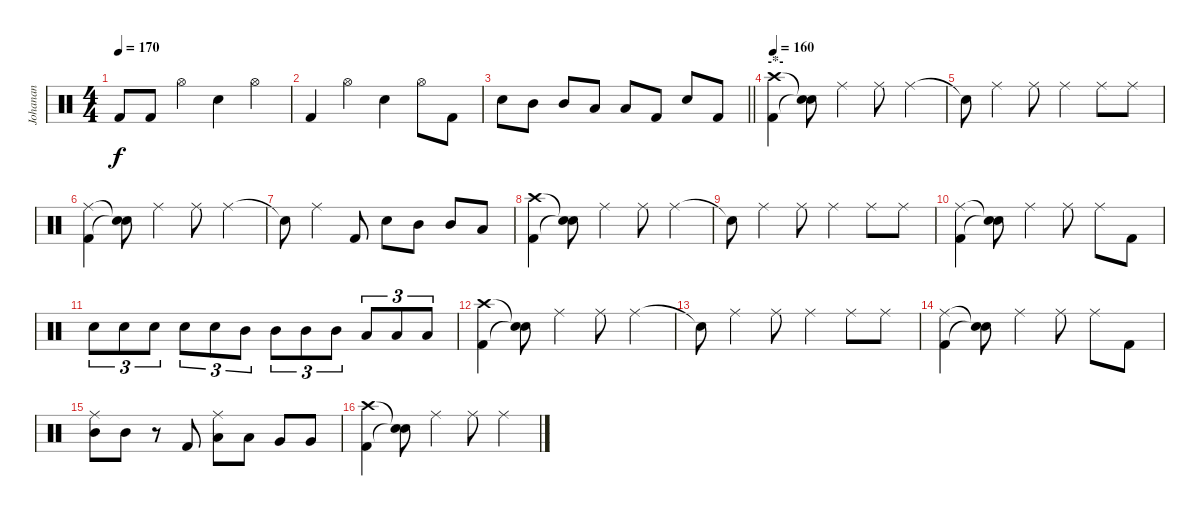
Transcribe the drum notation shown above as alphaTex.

\track ("Johanan" "Johanan") {instrument percussion}
\staff {score}
\articulation defaults
\ts (4 4)
\tempo 170
\clef neutral
\ks c "Kick (hit) 2".8{dy f} "Kick (hit) 2".8 "Hi-Hat (open)".4 "Electric Snare (hit)".4 "Hi-Hat (open)".4
|
"Kick (hit) 2".4 "Hi-Hat (open)".4 "Electric Snare (hit)".4 "Hi-Hat (open)".8 "Kick (hit) 2".8 |
\barLineRight lightlight "Electric Snare (hit)".8 "Mid Tom (hit)".8 "Mid Tom (hit)".8 "Low Tom (hit)".8 "Low Tom (hit)".8 "Kick (hit) 2".8 "Electric Snare (hit)".8 "Kick (hit) 2".8
|
\section ("" "-*-")
\tempo 160
("Crash high (hit)" "Kick (hit) 2").4 ("Snare (hit)"{t} "Snare (hit)"{t}).8 "Ride (middle)".4 "Ride (middle)".8 "Ride (middle)".4 |
"Snare (hit)"{t}.8 "Ride (middle)".4 "Ride (middle)".8 "Ride (middle)".4 "Ride (middle)".8 "Ride (middle)".8 |
("Ride (middle)" "Kick (hit) 2").4 ("Snare (hit)"{t} "Snare (hit)"{t}).8 "Ride (middle)".4 "Ride (middle)".8 "Ride (middle)".4 |
"Snare (hit)"{t}.8 "Ride (middle)".4 "Kick (hit) 2".8 "Electric Snare (hit)".8 "Mid Tom (hit)".8 "Mid Tom (hit)".8 "Low Tom (hit)".8 |
("Crash high (hit)" "Kick (hit) 2").4 ("Snare (hit)"{t} "Snare (hit)"{t}).8 "Ride (middle)".4 "Ride (middle)".8 "Ride (middle)".4 |
"Snare (hit)"{t}.8 "Ride (middle)".4 "Ride (middle)".8 "Ride (middle)".4 "Ride (middle)".8 "Ride (middle)".8 |
("Ride (middle)" "Kick (hit) 2").4 ("Snare (hit)"{t} "Snare (hit)"{t}).8 "Ride (middle)".4 "Ride (middle)".8 "Ride (middle)".8 "Kick (hit) 2".8 |
"Electric Snare (hit)".8{tu (3 2)} "Electric Snare (hit)".8{tu (3 2)} "Electric Snare (hit)".8{tu (3 2)} "Electric Snare (hit)".8{tu (3 2)} "Electric Snare (hit)".8{tu (3 2)} "Mid Tom (hit)".8{tu (3 2)} "Mid Tom (hit)".8{tu (3 2)} "Mid Tom (hit)".8{tu (3 2)} "Mid Tom (hit)".8{tu (3 2)} "Low Tom (hit)".8{tu (3 2)} "Low Tom (hit)".8{tu (3 2)} "Low Tom (hit)".8{tu (3 2)} |
("Crash high (hit)" "Kick (hit) 2").4 ("Snare (hit)"{t} "Snare (hit)"{t}).8 "Ride (middle)".4 "Ride (middle)".8 "Ride (middle)".4 |
"Snare (hit)"{t}.8 "Ride (middle)".4 "Ride (middle)".8 "Ride (middle)".4 "Ride (middle)".8 "Ride (middle)".8 |
("Ride (middle)" "Kick (hit) 2").4 ("Snare (hit)"{t} "Snare (hit)"{t}).8 "Ride (middle)".4 "Ride (middle)".8 "Ride (middle)".8 "Kick (hit) 2".8 |
("Ride (middle)" "Mid Tom (hit)").8 "Mid Tom (hit)".8 r.8 "Kick (hit) 2".8 ("Ride (middle)" "Low Tom (hit)").8 "Low Tom (hit)".8 "Very Low Tom (hit)".8 "Very Low Tom (hit)".8 |
("Crash high (hit)" "Kick (hit) 2").4 ("Snare (hit)"{t} "Snare (hit)"{t}).8 "Ride (middle)".4 "Ride (middle)".8 "Ride (middle)".4
